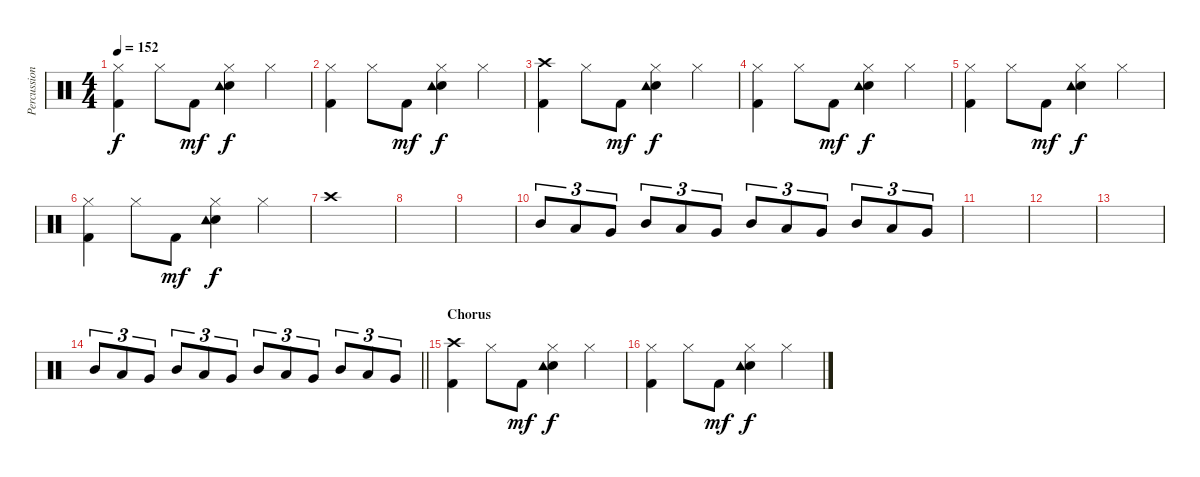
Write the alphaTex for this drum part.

\track ("Percussion" "Percussion") {instrument percussion}
\staff {score}
\articulation defaults
\ts (4 4)
\tempo 152
\clef neutral
\ks c
("Hi-Hat (closed)" "Kick (hit) 2").4{dy f} "Hi-Hat (closed)".8 "Kick (hit) 2".8{dy mf} ("Hi-Hat (closed)" "Snare (hit) 2" "Tambourine (hit)").4{dy f} "Hi-Hat (closed)".4 |
("Hi-Hat (closed)" "Kick (hit) 2").4 "Hi-Hat (closed)".8 "Kick (hit) 2".8{dy mf} ("Hi-Hat (closed)" "Snare (hit) 2" "Tambourine (hit)").4{dy f} "Hi-Hat (closed)".4 |
("Crash high (hit)" "Kick (hit) 2").4 "Hi-Hat (closed)".8 "Kick (hit) 2".8{dy mf} ("Hi-Hat (closed)" "Snare (hit) 2" "Tambourine (hit)").4{dy f} "Hi-Hat (closed)".4 |
("Hi-Hat (closed)" "Kick (hit) 2").4 "Hi-Hat (closed)".8 "Kick (hit) 2".8{dy mf} ("Hi-Hat (closed)" "Snare (hit) 2" "Tambourine (hit)").4{dy f} "Hi-Hat (closed)".4 |
("Hi-Hat (closed)" "Kick (hit) 2").4 "Hi-Hat (closed)".8 "Kick (hit) 2".8{dy mf} ("Hi-Hat (closed)" "Snare (hit) 2" "Tambourine (hit)").4{dy f} "Hi-Hat (closed)".4 |
("Hi-Hat (closed)" "Kick (hit) 2").4 "Hi-Hat (closed)".8 "Kick (hit) 2".8{dy mf} ("Hi-Hat (closed)" "Snare (hit) 2" "Tambourine (hit)").4{dy f} "Hi-Hat (closed)".4 |
"Crash high (hit)".1 |
|
|
"Mid Tom (hit)".8{tu (3 2)} "Low Tom (hit)".8{tu (3 2)} "Very Low Tom (hit)".8{tu (3 2)} "Mid Tom (hit)".8{tu (3 2)} "Low Tom (hit)".8{tu (3 2)} "Very Low Tom (hit)".8{tu (3 2)} "Mid Tom (hit)".8{tu (3 2)} "Low Tom (hit)".8{tu (3 2)} "Very Low Tom (hit)".8{tu (3 2)} "Mid Tom (hit)".8{tu (3 2)} "Low Tom (hit)".8{tu (3 2)} "Very Low Tom (hit)".8{tu (3 2)} |
|
|
|
\barLineRight lightlight "Mid Tom (hit)".8{tu (3 2)} "Low Tom (hit)".8{tu (3 2)} "Very Low Tom (hit)".8{tu (3 2)} "Mid Tom (hit)".8{tu (3 2)} "Low Tom (hit)".8{tu (3 2)} "Very Low Tom (hit)".8{tu (3 2)} "Mid Tom (hit)".8{tu (3 2)} "Low Tom (hit)".8{tu (3 2)} "Very Low Tom (hit)".8{tu (3 2)} "Mid Tom (hit)".8{tu (3 2)} "Low Tom (hit)".8{tu (3 2)} "Very Low Tom (hit)".8{tu (3 2)}
|
\section ("" "Chorus")
("Crash high (hit)" "Kick (hit) 2").4 "Hi-Hat (closed)".8 "Kick (hit) 2".8{dy mf} ("Hi-Hat (closed)" "Snare (hit) 2" "Tambourine (hit)").4{dy f} "Hi-Hat (closed)".4 |
("Hi-Hat (closed)" "Kick (hit) 2").4 "Hi-Hat (closed)".8 "Kick (hit) 2".8{dy mf} ("Hi-Hat (closed)" "Snare (hit) 2" "Tambourine (hit)").4{dy f} "Hi-Hat (closed)".4
